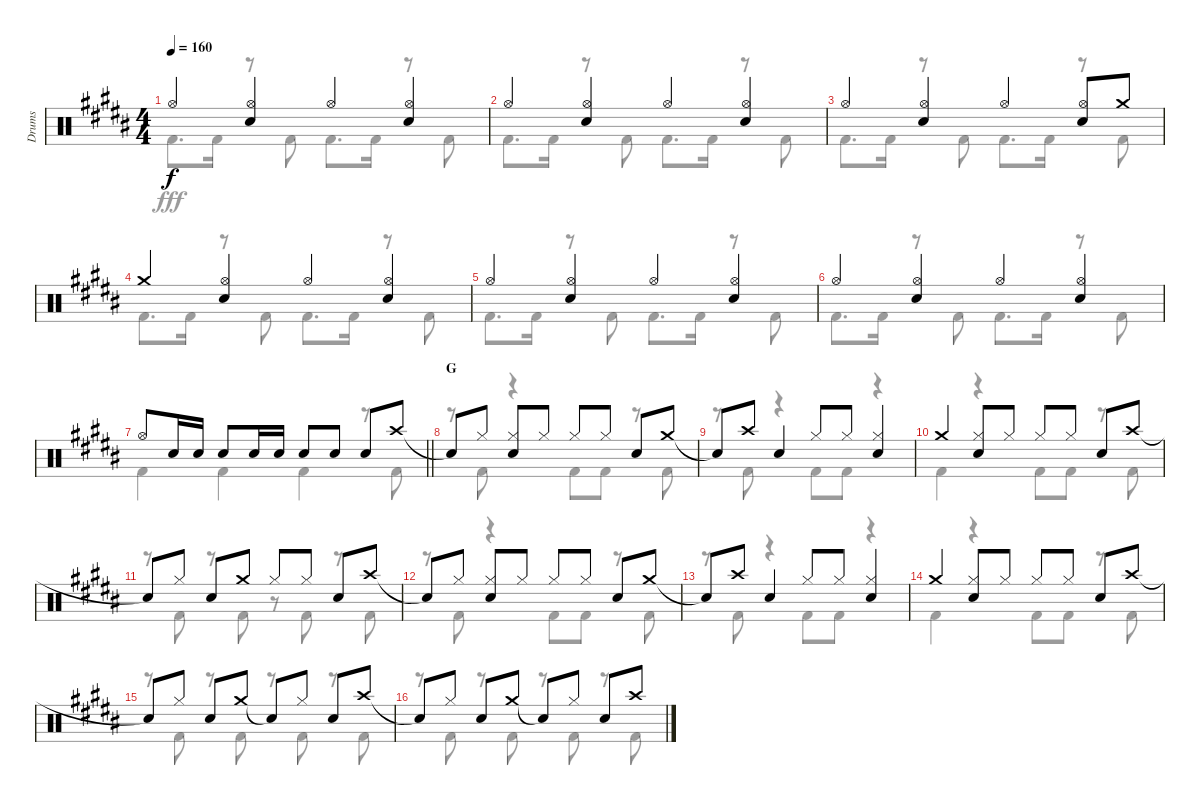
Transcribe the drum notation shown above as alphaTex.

\track ("Drums" "Drums") {instrument percussion}
\staff {score}
\articulation defaults
\voice
\ts (4 4)
\tempo 160
\clef neutral
\ks b "Hi-Hat (open)".4{dy f}
("Hi-Hat (open)" "Snare (hit) 2").4 "Hi-Hat (open)".4 ("Hi-Hat (open)" "Snare (hit) 2").4 |
"Hi-Hat (open)".4 ("Hi-Hat (open)" "Snare (hit) 2").4 "Hi-Hat (open)".4 ("Hi-Hat (open)" "Snare (hit) 2").4 |
"Hi-Hat (open)".4 ("Hi-Hat (open)" "Snare (hit) 2").4 "Hi-Hat (open)".4 ("Hi-Hat (open)" "Snare (hit) 2").8 "Crash medium (hit)".8 |
"Crash medium (hit)".4 ("Hi-Hat (open)" "Snare (hit) 2").4 "Hi-Hat (open)".4 ("Hi-Hat (open)" "Snare (hit) 2").4 |
"Hi-Hat (open)".4 ("Hi-Hat (open)" "Snare (hit) 2").4 "Hi-Hat (open)".4 ("Hi-Hat (open)" "Snare (hit) 2").4 |
"Hi-Hat (open)".4 ("Hi-Hat (open)" "Snare (hit) 2").4 "Hi-Hat (open)".4 ("Hi-Hat (open)" "Snare (hit) 2").4 |
\barLineRight lightlight "Hi-Hat (open)".8 "Snare (hit) 2".16 "Snare (hit) 2".16 "Snare (hit) 2".8 "Snare (hit) 2".16 "Snare (hit) 2".16 "Snare (hit) 2".8 "Snare (hit) 2".8 "Snare (hit) 2".8 "Crash high (hit)".8
|
\section ("" "G")
"Snare (hit)"{t}.8 "Hi-Hat (closed)".8 ("Hi-Hat (closed)" "Snare (hit) 2").8 "Hi-Hat (closed)".8 "Hi-Hat (closed)".8 "Hi-Hat (closed)".8 "Snare (hit) 2".8 "Crash medium (hit)".8 |
"Snare (hit)"{t}.8 "Crash high (hit)".8 "Snare (hit) 2".4 "Hi-Hat (closed)".8 "Hi-Hat (closed)".8 ("Hi-Hat (closed)" "Snare (hit) 2").4 |
"Crash medium (hit)".4 ("Hi-Hat (closed)" "Snare (hit) 2").8 "Hi-Hat (closed)".8 "Hi-Hat (closed)".8 "Hi-Hat (closed)".8 "Snare (hit) 2".8 "Crash high (hit)".8 |
"Snare (hit)"{t}.8 "Hi-Hat (closed)".8 "Snare (hit) 2".8 "Crash medium (hit)".8 "Hi-Hat (closed)".8 "Hi-Hat (closed)".8 "Snare (hit) 2".8 "Crash high (hit)".8 |
"Snare (hit)"{t}.8 "Hi-Hat (closed)".8 ("Hi-Hat (closed)" "Snare (hit) 2").8 "Hi-Hat (closed)".8 "Hi-Hat (closed)".8 "Hi-Hat (closed)".8 "Snare (hit) 2".8 "Crash medium (hit)".8 |
"Snare (hit)"{t}.8 "Crash high (hit)".8 "Snare (hit) 2".4 "Hi-Hat (closed)".8 "Hi-Hat (closed)".8 ("Hi-Hat (closed)" "Snare (hit) 2").4 |
"Crash medium (hit)".4 ("Hi-Hat (closed)" "Snare (hit) 2").8 "Hi-Hat (closed)".8 "Hi-Hat (closed)".8 "Hi-Hat (closed)".8 "Snare (hit) 2".8 "Crash high (hit)".8 |
"Snare (hit)"{t}.8 "Hi-Hat (closed)".8 "Snare (hit) 2".8 "Crash medium (hit)".8 "Snare (hit)"{t}.8 "Hi-Hat (closed)".8 "Snare (hit) 2".8 "Crash high (hit)".8 |
"Snare (hit)"{t}.8 "Hi-Hat (closed)".8 "Snare (hit) 2".8 "Crash medium (hit)".8 "Snare (hit)"{t}.8 "Hi-Hat (closed)".8 "Snare (hit) 2".8 "Crash high (hit)".8
\voice
\clef neutral
\ottava regular
\simile none
\ks b "Kick (hit) 2".8{d dy fff} "Kick (hit) 2".16
r.8 "Kick (hit) 2".8 "Kick (hit) 2".8{d} "Kick (hit) 2".16 r.8 "Kick (hit) 2".8 |
"Kick (hit) 2".8{d} "Kick (hit) 2".16 r.8 "Kick (hit) 2".8 "Kick (hit) 2".8{d} "Kick (hit) 2".16 r.8 "Kick (hit) 2".8 |
"Kick (hit) 2".8{d} "Kick (hit) 2".16 r.8 "Kick (hit) 2".8 "Kick (hit) 2".8{d} "Kick (hit) 2".16 r.8 "Kick (hit) 2".8 |
"Kick (hit) 2".8{d} "Kick (hit) 2".16 r.8 "Kick (hit) 2".8 "Kick (hit) 2".8{d} "Kick (hit) 2".16 r.8 "Kick (hit) 2".8 |
"Kick (hit) 2".8{d} "Kick (hit) 2".16 r.8 "Kick (hit) 2".8 "Kick (hit) 2".8{d} "Kick (hit) 2".16 r.8 "Kick (hit) 2".8 |
"Kick (hit) 2".8{d} "Kick (hit) 2".16 r.8 "Kick (hit) 2".8 "Kick (hit) 2".8{d} "Kick (hit) 2".16 r.8 "Kick (hit) 2".8 |
\barLineRight lightlight "Kick (hit) 2".4 "Kick (hit) 2".4 "Kick (hit) 2".4
r.8 "Kick (hit) 2".8 |
r.8 "Kick (hit) 2".8 r.4 "Kick (hit) 2".8 "Kick (hit) 2".8 r.8 "Kick (hit) 2".8 |
r.8 "Kick (hit) 2".8 r.4 "Kick (hit) 2".8 "Kick (hit) 2".8 r.4 |
"Kick (hit) 2".4 r.4 "Kick (hit) 2".8 "Kick (hit) 2".8 r.8 "Kick (hit) 2".8 |
r.8 "Kick (hit) 2".8 r.8 "Kick (hit) 2".8 r.8 "Kick (hit) 2".8 r.8 "Kick (hit) 2".8 |
r.8 "Kick (hit) 2".8 r.4 "Kick (hit) 2".8 "Kick (hit) 2".8 r.8 "Kick (hit) 2".8 |
r.8 "Kick (hit) 2".8 r.4 "Kick (hit) 2".8 "Kick (hit) 2".8 r.4 |
"Kick (hit) 2".4 r.4 "Kick (hit) 2".8 "Kick (hit) 2".8 r.8 "Kick (hit) 2".8 |
r.8 "Kick (hit) 2".8 r.8 "Kick (hit) 2".8 r.8 "Kick (hit) 2".8 r.8 "Kick (hit) 2".8 |
r.8 "Kick (hit) 2".8 r.8 "Kick (hit) 2".8 r.8 "Kick (hit) 2".8 r.8 "Kick (hit) 2".8
